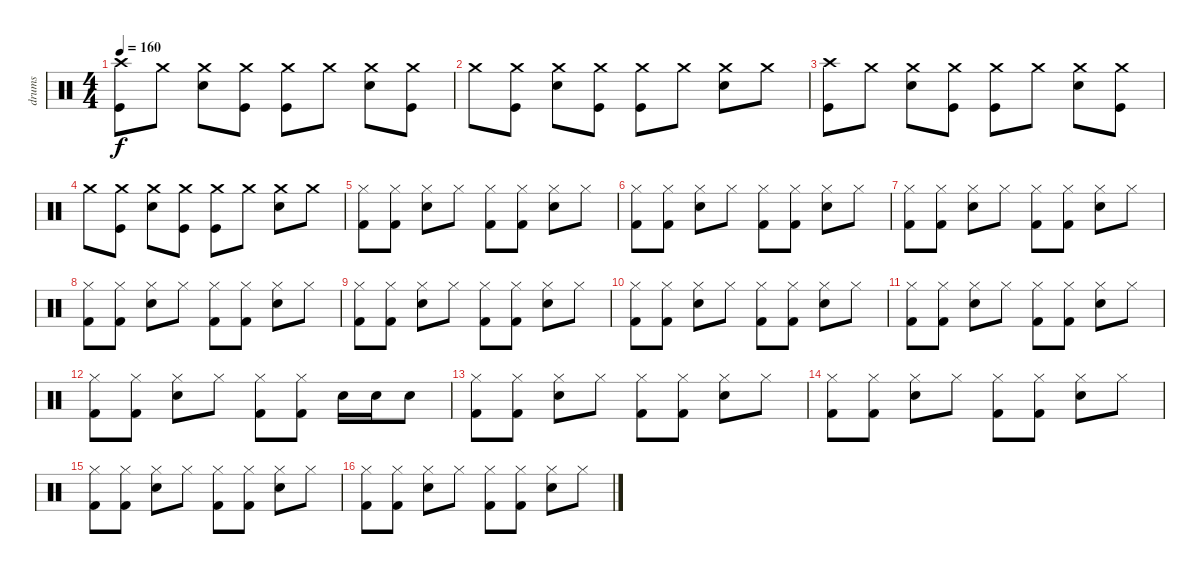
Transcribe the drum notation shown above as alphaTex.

\track ("drums" "drums") {instrument percussion}
\staff {score}
\articulation defaults
\ts (4 4)
\tempo 160
\clef neutral
\ks c
("Crash high (hit)" "Kick (hit)").8{dy f} "Crash medium (hit)".8 ("Crash medium (hit)" "Snare (hit) 2").8 ("Crash medium (hit)" "Kick (hit)").8 ("Crash medium (hit)" "Kick (hit)").8 "Crash medium (hit)".8 ("Crash medium (hit)" "Snare (hit) 2").8 ("Crash medium (hit)" "Kick (hit)").8 |
"Crash medium (hit)".8 ("Crash medium (hit)" "Kick (hit)").8 ("Crash medium (hit)" "Snare (hit) 2").8 ("Crash medium (hit)" "Kick (hit)").8 ("Crash medium (hit)" "Kick (hit)").8 "Crash medium (hit)".8 ("Crash medium (hit)" "Snare (hit) 2").8 "Crash medium (hit)".8 |
("Crash high (hit)" "Kick (hit)").8 "Crash medium (hit)".8 ("Crash medium (hit)" "Snare (hit) 2").8 ("Crash medium (hit)" "Kick (hit)").8 ("Crash medium (hit)" "Kick (hit)").8 "Crash medium (hit)".8 ("Crash medium (hit)" "Snare (hit) 2").8 ("Crash medium (hit)" "Kick (hit)").8 |
"Crash medium (hit)".8 ("Crash medium (hit)" "Kick (hit)").8 ("Crash medium (hit)" "Snare (hit) 2").8 ("Crash medium (hit)" "Kick (hit)").8 ("Crash medium (hit)" "Kick (hit)").8 "Crash medium (hit)".8 ("Crash medium (hit)" "Snare (hit) 2").8 "Crash medium (hit)".8 |
("Hi-Hat (closed)" "Kick (hit) 2").8 ("Hi-Hat (closed)" "Kick (hit) 2").8 ("Hi-Hat (closed)" "Electric Snare (hit)").8 "Hi-Hat (closed)".8 ("Hi-Hat (closed)" "Kick (hit) 2").8 ("Hi-Hat (closed)" "Kick (hit) 2").8 ("Hi-Hat (closed)" "Electric Snare (hit)").8 "Hi-Hat (closed)".8 |
("Hi-Hat (closed)" "Kick (hit) 2").8 ("Hi-Hat (closed)" "Kick (hit) 2").8 ("Hi-Hat (closed)" "Electric Snare (hit)").8 "Hi-Hat (closed)".8 ("Hi-Hat (closed)" "Kick (hit) 2").8 ("Hi-Hat (closed)" "Kick (hit) 2").8 ("Hi-Hat (closed)" "Electric Snare (hit)").8 "Hi-Hat (closed)".8 |
("Hi-Hat (closed)" "Kick (hit) 2").8 ("Hi-Hat (closed)" "Kick (hit) 2").8 ("Hi-Hat (closed)" "Electric Snare (hit)").8 "Hi-Hat (closed)".8 ("Hi-Hat (closed)" "Kick (hit) 2").8 ("Hi-Hat (closed)" "Kick (hit) 2").8 ("Hi-Hat (closed)" "Electric Snare (hit)").8 "Hi-Hat (closed)".8 |
("Hi-Hat (closed)" "Kick (hit) 2").8 ("Hi-Hat (closed)" "Kick (hit) 2").8 ("Hi-Hat (closed)" "Electric Snare (hit)").8 "Hi-Hat (closed)".8 ("Hi-Hat (closed)" "Kick (hit) 2").8 ("Hi-Hat (closed)" "Kick (hit) 2").8 ("Hi-Hat (closed)" "Electric Snare (hit)").8 "Hi-Hat (closed)".8 |
("Hi-Hat (closed)" "Kick (hit) 2").8 ("Hi-Hat (closed)" "Kick (hit) 2").8 ("Hi-Hat (closed)" "Electric Snare (hit)").8 "Hi-Hat (closed)".8 ("Hi-Hat (closed)" "Kick (hit) 2").8 ("Hi-Hat (closed)" "Kick (hit) 2").8 ("Hi-Hat (closed)" "Electric Snare (hit)").8 "Hi-Hat (closed)".8 |
("Hi-Hat (closed)" "Kick (hit) 2").8 ("Hi-Hat (closed)" "Kick (hit) 2").8 ("Hi-Hat (closed)" "Electric Snare (hit)").8 "Hi-Hat (closed)".8 ("Hi-Hat (closed)" "Kick (hit) 2").8 ("Hi-Hat (closed)" "Kick (hit) 2").8 ("Hi-Hat (closed)" "Electric Snare (hit)").8 "Hi-Hat (closed)".8 |
("Hi-Hat (closed)" "Kick (hit) 2").8 ("Hi-Hat (closed)" "Kick (hit) 2").8 ("Hi-Hat (closed)" "Electric Snare (hit)").8 "Hi-Hat (closed)".8 ("Hi-Hat (closed)" "Kick (hit) 2").8 ("Hi-Hat (closed)" "Kick (hit) 2").8 ("Hi-Hat (closed)" "Electric Snare (hit)").8 "Hi-Hat (closed)".8 |
("Hi-Hat (closed)" "Kick (hit) 2").8 ("Hi-Hat (closed)" "Kick (hit) 2").8 ("Hi-Hat (closed)" "Electric Snare (hit)").8 "Hi-Hat (closed)".8 ("Hi-Hat (closed)" "Kick (hit) 2").8 ("Hi-Hat (closed)" "Kick (hit) 2").8 "Electric Snare (hit)".16 "Electric Snare (hit)".16 "Electric Snare (hit)".8 |
("Hi-Hat (closed)" "Kick (hit) 2").8 ("Hi-Hat (closed)" "Kick (hit) 2").8 ("Hi-Hat (closed)" "Electric Snare (hit)").8 "Hi-Hat (closed)".8 ("Hi-Hat (closed)" "Kick (hit) 2").8 ("Hi-Hat (closed)" "Kick (hit) 2").8 ("Hi-Hat (closed)" "Electric Snare (hit)").8 "Hi-Hat (closed)".8 |
("Hi-Hat (closed)" "Kick (hit) 2").8 ("Hi-Hat (closed)" "Kick (hit) 2").8 ("Hi-Hat (closed)" "Electric Snare (hit)").8 "Hi-Hat (closed)".8 ("Hi-Hat (closed)" "Kick (hit) 2").8 ("Hi-Hat (closed)" "Kick (hit) 2").8 ("Hi-Hat (closed)" "Electric Snare (hit)").8 "Hi-Hat (closed)".8 |
("Hi-Hat (closed)" "Kick (hit) 2").8 ("Hi-Hat (closed)" "Kick (hit) 2").8 ("Hi-Hat (closed)" "Electric Snare (hit)").8 "Hi-Hat (closed)".8 ("Hi-Hat (closed)" "Kick (hit) 2").8 ("Hi-Hat (closed)" "Kick (hit) 2").8 ("Hi-Hat (closed)" "Electric Snare (hit)").8 "Hi-Hat (closed)".8 |
("Hi-Hat (closed)" "Kick (hit) 2").8 ("Hi-Hat (closed)" "Kick (hit) 2").8 ("Hi-Hat (closed)" "Electric Snare (hit)").8 "Hi-Hat (closed)".8 ("Hi-Hat (closed)" "Kick (hit) 2").8 ("Hi-Hat (closed)" "Kick (hit) 2").8 ("Hi-Hat (closed)" "Electric Snare (hit)").8 "Hi-Hat (closed)".8
